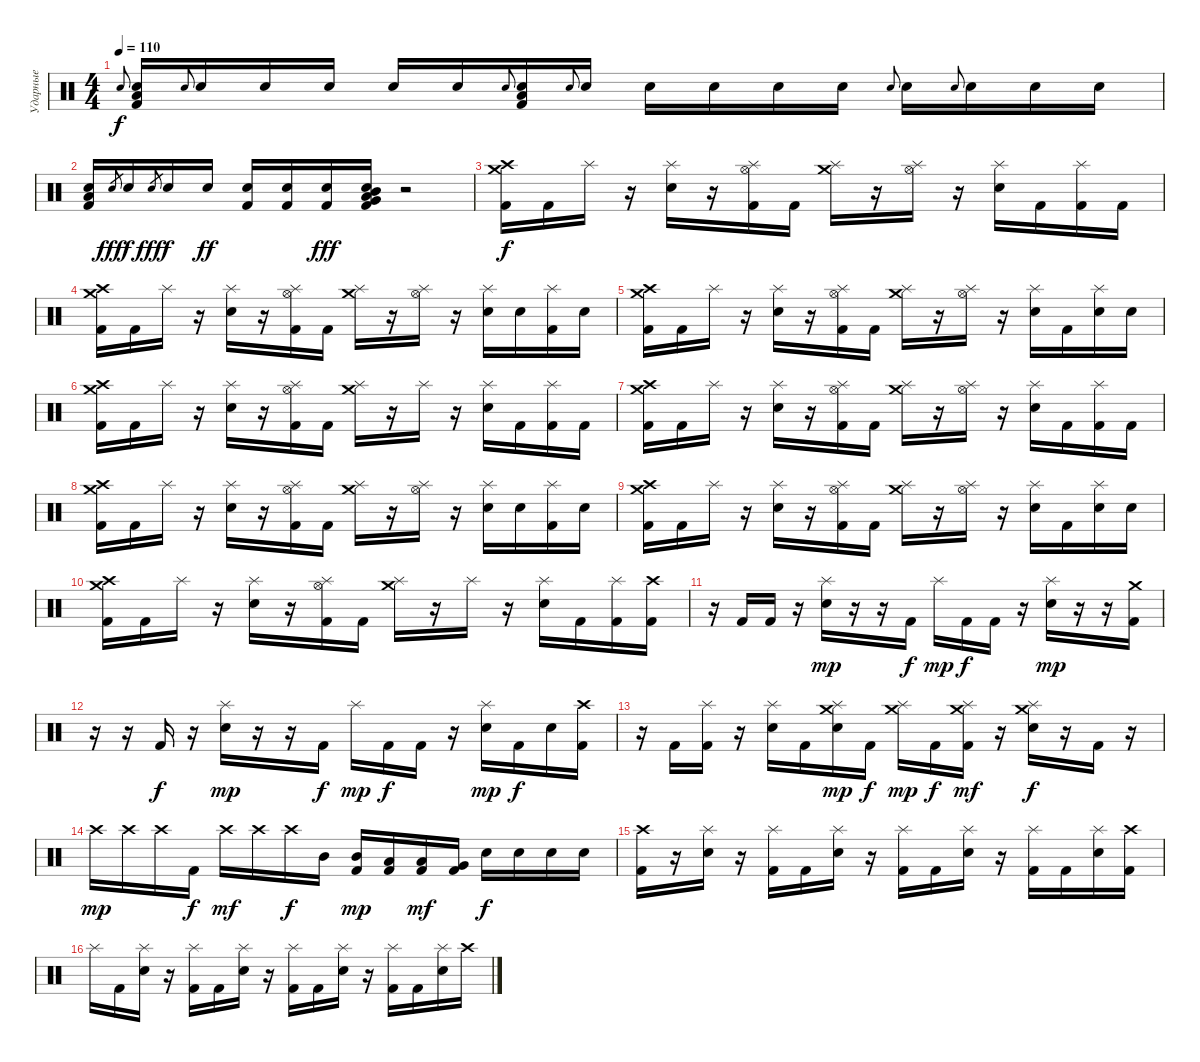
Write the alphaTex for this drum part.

\track ("Ударные" "Ударные") {instrument percussion}
\staff {score}
\articulation defaults
\ts (4 4)
\tempo 110
\clef neutral
\ks c "Electric Snare (hit)".8{gr onbeat dy f}
("Low Tom (hit)" "Kick (hit) 2" "Electric Snare (hit)").16 "Electric Snare (hit)".8{gr onbeat} "Electric Snare (hit)".16 "Electric Snare (hit)".16 "Electric Snare (hit)".16 "Electric Snare (hit)".16 "Electric Snare (hit)".16 "Electric Snare (hit)".8{gr onbeat} ("Low Tom (hit)" "Kick (hit) 2" "Electric Snare (hit)").16 "Electric Snare (hit)".8{gr onbeat} "Electric Snare (hit)".16 "Electric Snare (hit)".16 "Electric Snare (hit)".16 "Electric Snare (hit)".16 "Electric Snare (hit)".16 "Electric Snare (hit)".8{gr onbeat} "Electric Snare (hit)".16 "Electric Snare (hit)".8{gr onbeat} "Electric Snare (hit)".16 "Electric Snare (hit)".16 "Electric Snare (hit)".16 |
("Low Tom (hit)" "Kick (hit) 2" "Electric Snare (hit)").16 "Electric Snare (hit)".8{gr dy fff} "Electric Snare (hit)".16{dy f} "Electric Snare (hit)".8{gr dy fff} "Electric Snare (hit)".16{dy f} "Electric Snare (hit)".16{dy ff} ("Kick (hit) 2" "Electric Snare (hit)").16 ("Kick (hit) 2" "Electric Snare (hit)").16 ("Kick (hit) 2" "Electric Snare (hit)").16{dy fff} ("Mid Tom (hit)" "Low Tom (hit)" "Very Low Tom (hit)" "Kick (hit) 2" "Electric Snare (hit)").16 r.2 |
("Crash high (hit)" "Crash medium (hit)" "Kick (hit) 2").16{dy f} "Kick (hit) 2".16 "Splash (hit)".16 r.16 ("Splash (hit)" "Electric Snare (hit)").16 r.16 ("Hi-Hat (open)" "Splash (hit)" "Kick (hit) 2").16 "Kick (hit) 2".16 ("Crash medium (hit)" "Splash (hit)").16 r.16 ("Hi-Hat (open)" "Splash (hit)").16 r.16 ("Splash (hit)" "Electric Snare (hit)").16 "Kick (hit) 2".16 ("Splash (hit)" "Kick (hit) 2").16 "Kick (hit) 2".16 |
("Crash high (hit)" "Crash medium (hit)" "Kick (hit) 2").16 "Kick (hit) 2".16 "Splash (hit)".16 r.16 ("Splash (hit)" "Electric Snare (hit)").16 r.16 ("Hi-Hat (open)" "Splash (hit)" "Kick (hit) 2").16 "Kick (hit) 2".16 ("Crash medium (hit)" "Splash (hit)").16 r.16 ("Hi-Hat (open)" "Splash (hit)").16 r.16 ("Splash (hit)" "Electric Snare (hit)").16 "Electric Snare (hit)".16 ("Splash (hit)" "Kick (hit) 2").16 "Electric Snare (hit)".16 |
("Crash high (hit)" "Crash medium (hit)" "Kick (hit) 2").16 "Kick (hit) 2".16 "Splash (hit)".16 r.16 ("Splash (hit)" "Electric Snare (hit)").16 r.16 ("Hi-Hat (open)" "Splash (hit)" "Kick (hit) 2").16 "Kick (hit) 2".16 ("Crash medium (hit)" "Splash (hit)").16 r.16 ("Hi-Hat (open)" "Splash (hit)").16 r.16 ("Splash (hit)" "Electric Snare (hit)").16 "Kick (hit) 2".16 ("Splash (hit)" "Electric Snare (hit)").16 "Electric Snare (hit)".16 |
("Crash high (hit)" "Crash medium (hit)" "Kick (hit) 2").16 "Kick (hit) 2".16 "Splash (hit)".16 r.16 ("Splash (hit)" "Electric Snare (hit)").16 r.16 ("Hi-Hat (open)" "Splash (hit)" "Kick (hit) 2").16 "Kick (hit) 2".16 ("Crash medium (hit)" "Splash (hit)").16 r.16 "Splash (hit)".16 r.16 ("Splash (hit)" "Electric Snare (hit)").16 "Kick (hit) 2".16 ("Splash (hit)" "Kick (hit) 2").16 "Kick (hit) 2".16 |
("Crash high (hit)" "Crash medium (hit)" "Kick (hit) 2").16 "Kick (hit) 2".16 "Splash (hit)".16 r.16 ("Splash (hit)" "Electric Snare (hit)").16 r.16 ("Hi-Hat (open)" "Splash (hit)" "Kick (hit) 2").16 "Kick (hit) 2".16 ("Crash medium (hit)" "Splash (hit)").16 r.16 ("Hi-Hat (open)" "Splash (hit)").16 r.16 ("Splash (hit)" "Electric Snare (hit)").16 "Kick (hit) 2".16 ("Splash (hit)" "Kick (hit) 2").16 "Kick (hit) 2".16 |
("Crash high (hit)" "Crash medium (hit)" "Kick (hit) 2").16 "Kick (hit) 2".16 "Splash (hit)".16 r.16 ("Splash (hit)" "Electric Snare (hit)").16 r.16 ("Hi-Hat (open)" "Splash (hit)" "Kick (hit) 2").16 "Kick (hit) 2".16 ("Crash medium (hit)" "Splash (hit)").16 r.16 ("Hi-Hat (open)" "Splash (hit)").16 r.16 ("Splash (hit)" "Electric Snare (hit)").16 "Electric Snare (hit)".16 ("Splash (hit)" "Kick (hit) 2").16 "Electric Snare (hit)".16 |
("Crash high (hit)" "Crash medium (hit)" "Kick (hit) 2").16 "Kick (hit) 2".16 "Splash (hit)".16 r.16 ("Splash (hit)" "Electric Snare (hit)").16 r.16 ("Hi-Hat (open)" "Splash (hit)" "Kick (hit) 2").16 "Kick (hit) 2".16 ("Crash medium (hit)" "Splash (hit)").16 r.16 ("Hi-Hat (open)" "Splash (hit)").16 r.16 ("Splash (hit)" "Electric Snare (hit)").16 "Kick (hit) 2".16 ("Splash (hit)" "Electric Snare (hit)").16 "Electric Snare (hit)".16 |
("Crash high (hit)" "Crash medium (hit)" "Kick (hit) 2").16 "Kick (hit) 2".16 "Splash (hit)".16 r.16 ("Splash (hit)" "Electric Snare (hit)").16 r.16 ("Hi-Hat (open)" "Splash (hit)" "Kick (hit) 2").16 "Kick (hit) 2".16 ("Crash medium (hit)" "Splash (hit)").16 r.16 "Splash (hit)".16 r.16 ("Splash (hit)" "Electric Snare (hit)").16 "Kick (hit) 2".16 ("Splash (hit)" "Kick (hit) 2").16 ("Crash high (hit)" "Kick (hit) 2").16 |
r.16 "Kick (hit) 2".16 "Kick (hit) 2".16 r.16 ("Splash (hit)" "Electric Snare (hit)").16{dy mp} r.16 r.16 "Kick (hit) 2".16{dy f} "Splash (hit)".16{dy mp} "Kick (hit) 2".16{dy f} "Kick (hit) 2".16 r.16 ("Splash (hit)" "Electric Snare (hit)").16{dy mp} r.16 r.16 ("Crash medium (hit)" "Kick (hit) 2").16 |
r.16 r.16 "Kick (hit) 2".16{dy f} r.16 ("Splash (hit)" "Electric Snare (hit)").16{dy mp} r.16 r.16 "Kick (hit) 2".16{dy f} "Splash (hit)".16{dy mp} "Kick (hit) 2".16{dy f} "Kick (hit) 2".16 r.16 ("Splash (hit)" "Electric Snare (hit)").16{dy mp} "Kick (hit) 2".16{dy f} "Electric Snare (hit)".16 ("Crash high (hit)" "Kick (hit) 2").16 |
r.16 "Kick (hit) 2".16 ("Splash (hit)" "Kick (hit) 2").16 r.16 ("Splash (hit)" "Electric Snare (hit)").16 "Kick (hit) 2".16 ("Crash medium (hit)" "Splash (hit)" "Electric Snare (hit)").16{dy mp} "Kick (hit) 2".16{dy f} ("Crash medium (hit)" "Splash (hit)").16{dy mp} "Kick (hit) 2".16{dy f} ("Crash medium (hit)" "Splash (hit)" "Kick (hit) 2").16{dy mf} r.16 ("Crash medium (hit)" "Splash (hit)" "Electric Snare (hit)").16{dy f} r.16 "Kick (hit) 2".16 r.16 |
"Crash high (hit)".16{dy mp} "Crash high (hit)".16 "Crash high (hit)".16 "Kick (hit) 2".16{dy f} "Crash high (hit)".16{dy mf} "Crash high (hit)".16 "Crash high (hit)".16{dy f} "Mid Tom (hit)".16 ("Mid Tom (hit)" "Kick (hit) 2").16{dy mp} ("Low Tom (hit)" "Kick (hit) 2").16 ("Low Tom (hit)" "Kick (hit) 2").16{dy mf} ("Very Low Tom (hit)" "Kick (hit) 2").16 "Electric Snare (hit)".16{dy f} "Electric Snare (hit)".16 "Electric Snare (hit)".16 "Electric Snare (hit)".16 |
("Crash high (hit)" "Kick (hit) 2").16 r.16 ("Splash (hit)" "Electric Snare (hit)").16 r.16 ("Splash (hit)" "Kick (hit) 2").16 "Kick (hit) 2".16 ("Splash (hit)" "Electric Snare (hit)").16 r.16 ("Splash (hit)" "Kick (hit) 2").16 "Kick (hit) 2".16 ("Splash (hit)" "Electric Snare (hit)").16 r.16 ("Splash (hit)" "Kick (hit) 2").16 "Kick (hit) 2".16 ("Splash (hit)" "Electric Snare (hit)").16 ("Crash high (hit)" "Kick (hit) 2").16 |
"Splash (hit)".16 "Kick (hit) 2".16 ("Splash (hit)" "Electric Snare (hit)").16 r.16 ("Splash (hit)" "Kick (hit) 2").16 "Kick (hit) 2".16 ("Splash (hit)" "Electric Snare (hit)").16 r.16 ("Splash (hit)" "Kick (hit) 2").16 "Kick (hit) 2".16 ("Splash (hit)" "Electric Snare (hit)").16 r.16 ("Splash (hit)" "Kick (hit) 2").16 "Kick (hit) 2".16 ("Splash (hit)" "Electric Snare (hit)").16 "Crash high (hit)".16
